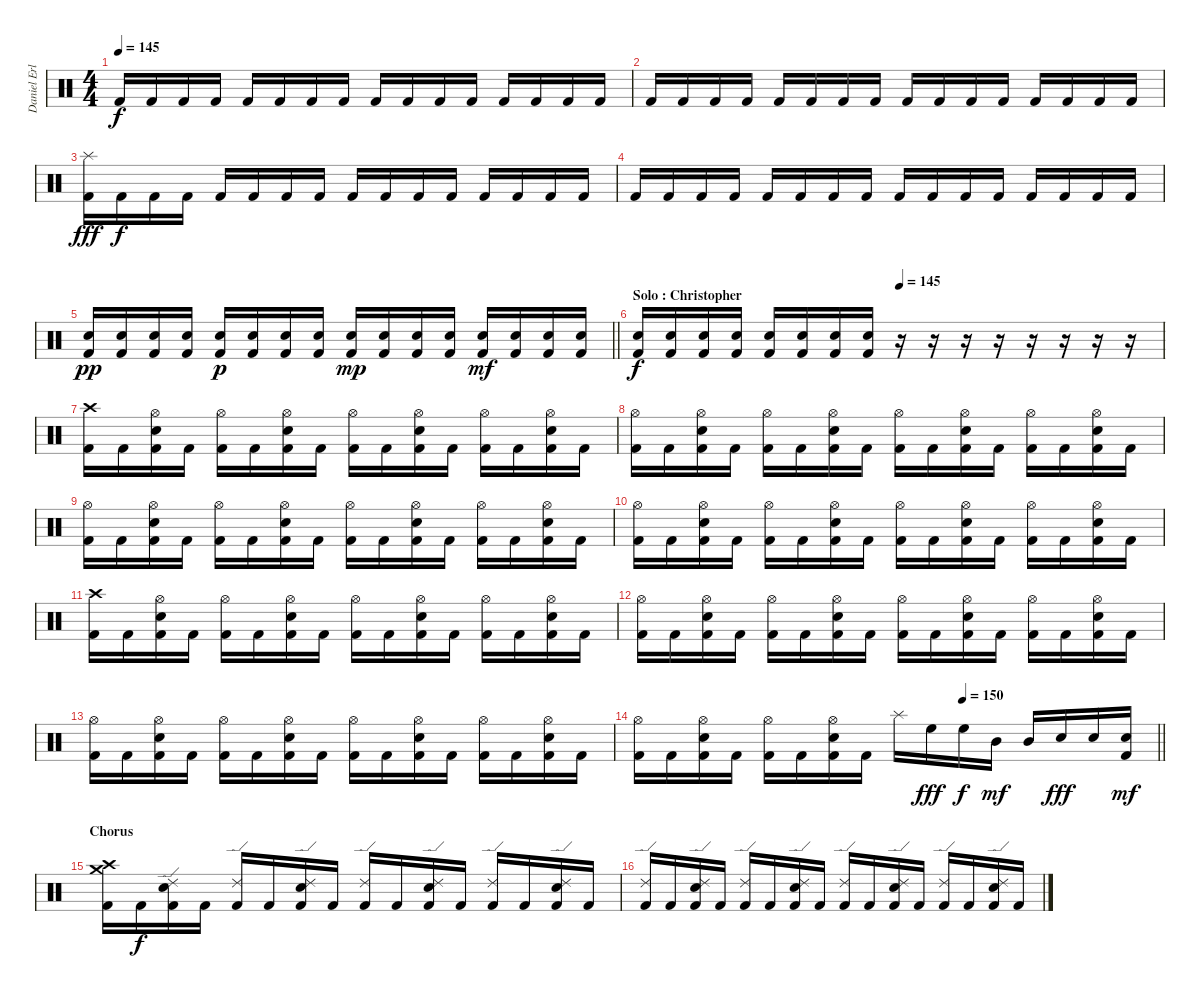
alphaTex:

\track ("Daniel Erlandsson" "Daniel Erl") {instrument percussion}
\staff {score}
\articulation defaults
\ts (4 4)
\tempo 145
\clef neutral
\ks c "Kick (hit) 2".16{dy f} "Kick (hit) 2".16 "Kick (hit) 2".16 "Kick (hit) 2".16 "Kick (hit) 2".16 "Kick (hit) 2".16 "Kick (hit) 2".16 "Kick (hit) 2".16 "Kick (hit) 2".16 "Kick (hit) 2".16 "Kick (hit) 2".16 "Kick (hit) 2".16 "Kick (hit) 2".16 "Kick (hit) 2".16 "Kick (hit) 2".16 "Kick (hit) 2".16
|
"Kick (hit) 2".16 "Kick (hit) 2".16 "Kick (hit) 2".16 "Kick (hit) 2".16 "Kick (hit) 2".16 "Kick (hit) 2".16 "Kick (hit) 2".16 "Kick (hit) 2".16 "Kick (hit) 2".16 "Kick (hit) 2".16 "Kick (hit) 2".16 "Kick (hit) 2".16 "Kick (hit) 2".16 "Kick (hit) 2".16 "Kick (hit) 2".16 "Kick (hit) 2".16 |
("Splash (hit)" "Kick (hit) 2").16{dy fff} "Kick (hit) 2".16{dy f} "Kick (hit) 2".16 "Kick (hit) 2".16 "Kick (hit) 2".16 "Kick (hit) 2".16 "Kick (hit) 2".16 "Kick (hit) 2".16 "Kick (hit) 2".16 "Kick (hit) 2".16 "Kick (hit) 2".16 "Kick (hit) 2".16 "Kick (hit) 2".16 "Kick (hit) 2".16 "Kick (hit) 2".16 "Kick (hit) 2".16 |
"Kick (hit) 2".16 "Kick (hit) 2".16 "Kick (hit) 2".16 "Kick (hit) 2".16 "Kick (hit) 2".16 "Kick (hit) 2".16 "Kick (hit) 2".16 "Kick (hit) 2".16 "Kick (hit) 2".16 "Kick (hit) 2".16 "Kick (hit) 2".16 "Kick (hit) 2".16 "Kick (hit) 2".16 "Kick (hit) 2".16 "Kick (hit) 2".16 "Kick (hit) 2".16 |
\barLineRight lightlight
("Electric Snare (hit)" "Kick (hit) 2").16{dy pp} ("Electric Snare (hit)" "Kick (hit) 2").16 ("Electric Snare (hit)" "Kick (hit) 2").16 ("Electric Snare (hit)" "Kick (hit) 2").16 ("Electric Snare (hit)" "Kick (hit) 2").16{dy p} ("Electric Snare (hit)" "Kick (hit) 2").16 ("Electric Snare (hit)" "Kick (hit) 2").16 ("Electric Snare (hit)" "Kick (hit) 2").16 ("Electric Snare (hit)" "Kick (hit) 2").16{dy mp} ("Electric Snare (hit)" "Kick (hit) 2").16 ("Electric Snare (hit)" "Kick (hit) 2").16 ("Electric Snare (hit)" "Kick (hit) 2").16 ("Electric Snare (hit)" "Kick (hit) 2").16{dy mf} ("Electric Snare (hit)" "Kick (hit) 2").16 ("Electric Snare (hit)" "Kick (hit) 2").16 ("Electric Snare (hit)" "Kick (hit) 2").16 |
\section ("" "Solo : Christopher")
\tempo (145 0.5)
("Electric Snare (hit)" "Kick (hit) 2").16{dy f} ("Electric Snare (hit)" "Kick (hit) 2").16 ("Electric Snare (hit)" "Kick (hit) 2").16 ("Electric Snare (hit)" "Kick (hit) 2").16 ("Electric Snare (hit)" "Kick (hit) 2").16 ("Electric Snare (hit)" "Kick (hit) 2").16 ("Electric Snare (hit)" "Kick (hit) 2").16 ("Electric Snare (hit)" "Kick (hit) 2").16 r.16 r.16 r.16 r.16 r.16 r.16 r.16 r.16 |
("Crash high (hit)" "Kick (hit) 2").16 "Kick (hit) 2".16 ("Hi-Hat (open)" "Electric Snare (hit)" "Kick (hit) 2").16 "Kick (hit) 2".16 ("Hi-Hat (open)" "Kick (hit) 2").16 "Kick (hit) 2".16 ("Hi-Hat (open)" "Electric Snare (hit)" "Kick (hit) 2").16 "Kick (hit) 2".16 ("Hi-Hat (open)" "Kick (hit) 2").16 "Kick (hit) 2".16 ("Hi-Hat (open)" "Electric Snare (hit)" "Kick (hit) 2").16 "Kick (hit) 2".16 ("Hi-Hat (open)" "Kick (hit) 2").16 "Kick (hit) 2".16 ("Hi-Hat (open)" "Electric Snare (hit)" "Kick (hit) 2").16 "Kick (hit) 2".16 |
("Hi-Hat (open)" "Kick (hit) 2").16 "Kick (hit) 2".16 ("Hi-Hat (open)" "Electric Snare (hit)" "Kick (hit) 2").16 "Kick (hit) 2".16 ("Hi-Hat (open)" "Kick (hit) 2").16 "Kick (hit) 2".16 ("Hi-Hat (open)" "Electric Snare (hit)" "Kick (hit) 2").16 "Kick (hit) 2".16 ("Hi-Hat (open)" "Kick (hit) 2").16 "Kick (hit) 2".16 ("Hi-Hat (open)" "Electric Snare (hit)" "Kick (hit) 2").16 "Kick (hit) 2".16 ("Hi-Hat (open)" "Kick (hit) 2").16 "Kick (hit) 2".16 ("Hi-Hat (open)" "Electric Snare (hit)" "Kick (hit) 2").16 "Kick (hit) 2".16 |
("Hi-Hat (open)" "Kick (hit) 2").16 "Kick (hit) 2".16 ("Hi-Hat (open)" "Electric Snare (hit)" "Kick (hit) 2").16 "Kick (hit) 2".16 ("Hi-Hat (open)" "Kick (hit) 2").16 "Kick (hit) 2".16 ("Hi-Hat (open)" "Electric Snare (hit)" "Kick (hit) 2").16 "Kick (hit) 2".16 ("Hi-Hat (open)" "Kick (hit) 2").16 "Kick (hit) 2".16 ("Hi-Hat (open)" "Electric Snare (hit)" "Kick (hit) 2").16 "Kick (hit) 2".16 ("Hi-Hat (open)" "Kick (hit) 2").16 "Kick (hit) 2".16 ("Hi-Hat (open)" "Electric Snare (hit)" "Kick (hit) 2").16 "Kick (hit) 2".16 |
("Hi-Hat (open)" "Kick (hit) 2").16 "Kick (hit) 2".16 ("Hi-Hat (open)" "Electric Snare (hit)" "Kick (hit) 2").16 "Kick (hit) 2".16 ("Hi-Hat (open)" "Kick (hit) 2").16 "Kick (hit) 2".16 ("Hi-Hat (open)" "Electric Snare (hit)" "Kick (hit) 2").16 "Kick (hit) 2".16 ("Hi-Hat (open)" "Kick (hit) 2").16 "Kick (hit) 2".16 ("Hi-Hat (open)" "Electric Snare (hit)" "Kick (hit) 2").16 "Kick (hit) 2".16 ("Hi-Hat (open)" "Kick (hit) 2").16 "Kick (hit) 2".16 ("Hi-Hat (open)" "Electric Snare (hit)" "Kick (hit) 2").16 "Kick (hit) 2".16 |
("Crash high (hit)" "Kick (hit) 2").16 "Kick (hit) 2".16 ("Hi-Hat (open)" "Electric Snare (hit)" "Kick (hit) 2").16 "Kick (hit) 2".16 ("Hi-Hat (open)" "Kick (hit) 2").16 "Kick (hit) 2".16 ("Hi-Hat (open)" "Electric Snare (hit)" "Kick (hit) 2").16 "Kick (hit) 2".16 ("Hi-Hat (open)" "Kick (hit) 2").16 "Kick (hit) 2".16 ("Hi-Hat (open)" "Electric Snare (hit)" "Kick (hit) 2").16 "Kick (hit) 2".16 ("Hi-Hat (open)" "Kick (hit) 2").16 "Kick (hit) 2".16 ("Hi-Hat (open)" "Electric Snare (hit)" "Kick (hit) 2").16 "Kick (hit) 2".16 |
("Hi-Hat (open)" "Kick (hit) 2").16 "Kick (hit) 2".16 ("Hi-Hat (open)" "Electric Snare (hit)" "Kick (hit) 2").16 "Kick (hit) 2".16 ("Hi-Hat (open)" "Kick (hit) 2").16 "Kick (hit) 2".16 ("Hi-Hat (open)" "Electric Snare (hit)" "Kick (hit) 2").16 "Kick (hit) 2".16 ("Hi-Hat (open)" "Kick (hit) 2").16 "Kick (hit) 2".16 ("Hi-Hat (open)" "Electric Snare (hit)" "Kick (hit) 2").16 "Kick (hit) 2".16 ("Hi-Hat (open)" "Kick (hit) 2").16 "Kick (hit) 2".16 ("Hi-Hat (open)" "Electric Snare (hit)" "Kick (hit) 2").16 "Kick (hit) 2".16 |
("Hi-Hat (open)" "Kick (hit) 2").16 "Kick (hit) 2".16 ("Hi-Hat (open)" "Electric Snare (hit)" "Kick (hit) 2").16 "Kick (hit) 2".16 ("Hi-Hat (open)" "Kick (hit) 2").16 "Kick (hit) 2".16 ("Hi-Hat (open)" "Electric Snare (hit)" "Kick (hit) 2").16 "Kick (hit) 2".16 ("Hi-Hat (open)" "Kick (hit) 2").16 "Kick (hit) 2".16 ("Hi-Hat (open)" "Electric Snare (hit)" "Kick (hit) 2").16 "Kick (hit) 2".16 ("Hi-Hat (open)" "Kick (hit) 2").16 "Kick (hit) 2".16 ("Hi-Hat (open)" "Electric Snare (hit)" "Kick (hit) 2").16 "Kick (hit) 2".16 |
\tempo (150 0.625)
\barLineRight lightlight
("Hi-Hat (open)" "Kick (hit) 2").16 "Kick (hit) 2".16 ("Hi-Hat (open)" "Electric Snare (hit)" "Kick (hit) 2").16 "Kick (hit) 2".16 ("Hi-Hat (open)" "Kick (hit) 2").16 "Kick (hit) 2".16 ("Hi-Hat (open)" "Electric Snare (hit)" "Kick (hit) 2").16 "Kick (hit) 2".16 "Splash (hit)".16 "High Floor Tom (hit)".16{dy fff} "High Floor Tom (hit)".16{dy f} "Mid Tom (hit)".16{dy mf} "Mid Tom (hit)".16 "Electric Snare (hit)".16{dy fff} "Electric Snare (hit)".16 ("Electric Snare (hit)" "Kick (hit) 2").16{dy mf} |
\section ("" "Chorus")
("Crash medium (hit)" "Crash high (hit)" "Kick (hit) 2").16 "Kick (hit) 2".16{dy f} ("Ride (edge) 2" "Electric Snare (hit)" "Kick (hit) 2").16 "Kick (hit) 2".16 ("Ride (edge) 2" "Kick (hit) 2").16 "Kick (hit) 2".16 ("Ride (edge) 2" "Electric Snare (hit)" "Kick (hit) 2").16 "Kick (hit) 2".16 ("Ride (edge) 2" "Kick (hit) 2").16 "Kick (hit) 2".16 ("Ride (edge) 2" "Electric Snare (hit)" "Kick (hit) 2").16 "Kick (hit) 2".16 ("Ride (edge) 2" "Kick (hit) 2").16 "Kick (hit) 2".16 ("Ride (edge) 2" "Electric Snare (hit)" "Kick (hit) 2").16 "Kick (hit) 2".16 |
("Ride (edge) 2" "Kick (hit) 2").16 "Kick (hit) 2".16 ("Ride (edge) 2" "Electric Snare (hit)" "Kick (hit) 2").16 "Kick (hit) 2".16 ("Ride (edge) 2" "Kick (hit) 2").16 "Kick (hit) 2".16 ("Ride (edge) 2" "Electric Snare (hit)" "Kick (hit) 2").16 "Kick (hit) 2".16 ("Ride (edge) 2" "Kick (hit) 2").16 "Kick (hit) 2".16 ("Ride (edge) 2" "Electric Snare (hit)" "Kick (hit) 2").16 "Kick (hit) 2".16 ("Ride (edge) 2" "Kick (hit) 2").16 "Kick (hit) 2".16 ("Ride (edge) 2" "Electric Snare (hit)" "Kick (hit) 2").16 "Kick (hit) 2".16
